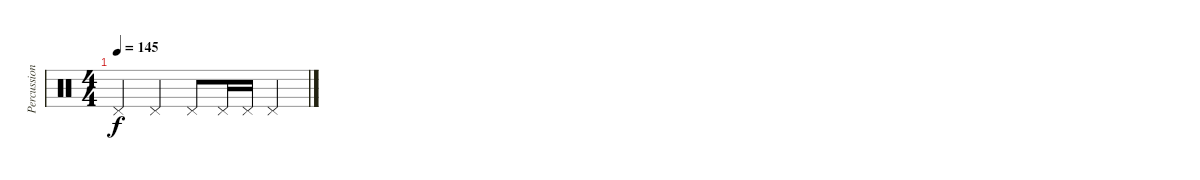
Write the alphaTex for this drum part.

\track ("Percussion" "Percussion") {instrument percussion}
\staff {score}
\articulation defaults
\ts (4 4)
\tempo 145
\clef neutral
\ks c "Pedal Hi-Hat (hit)".4{dy f} "Pedal Hi-Hat (hit)".4 "Pedal Hi-Hat (hit)".8 "Pedal Hi-Hat (hit)".16 "Pedal Hi-Hat (hit)".16 "Pedal Hi-Hat (hit)".4
